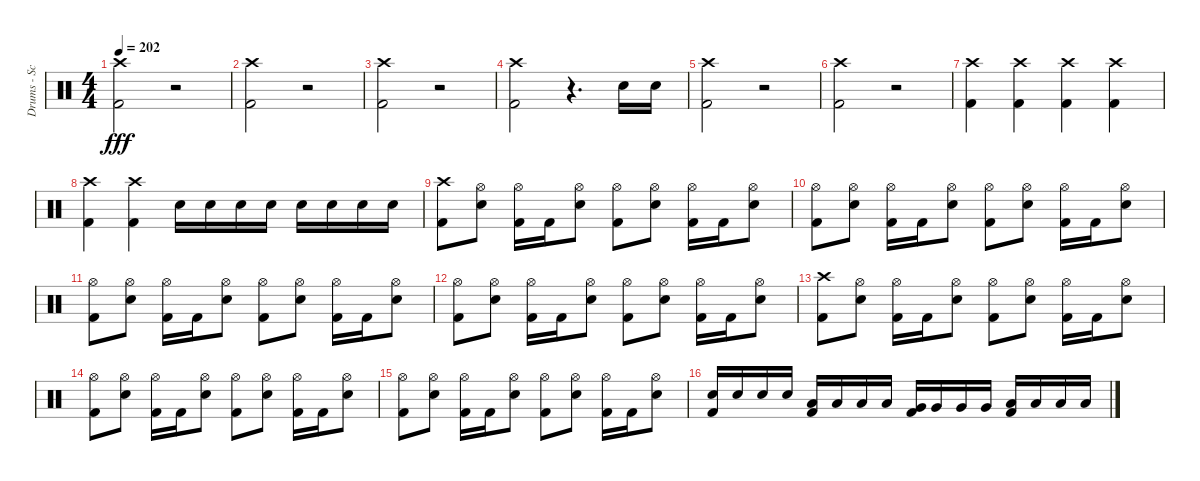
\track ("Drums - Scott" "Drums - Sc") {instrument percussion}
\staff {score}
\articulation defaults
\ts (4 4)
\tempo 202
\clef neutral
\ks c
("Crash high (hit)" "Kick (hit) 2").2{dy fff} r.2 |
("Crash high (hit)" "Kick (hit) 2").2 r.2 |
("Crash high (hit)" "Kick (hit) 2").2 r.2 |
("Crash high (hit)" "Kick (hit) 2").2 r.4{d} "Electric Snare (hit)".16 "Electric Snare (hit)".16 |
("Crash high (hit)" "Kick (hit) 2").2 r.2 |
("Crash high (hit)" "Kick (hit) 2").2 r.2 |
("Crash high (hit)" "Kick (hit) 2").4 ("Crash high (hit)" "Kick (hit) 2").4 ("Crash high (hit)" "Kick (hit) 2").4 ("Kick (hit) 2" "Crash high (hit)").4 |
("Crash high (hit)" "Kick (hit) 2").4 ("Crash high (hit)" "Kick (hit) 2").4 "Electric Snare (hit)".16 "Electric Snare (hit)".16 "Electric Snare (hit)".16 "Electric Snare (hit)".16 "Electric Snare (hit)".16 "Electric Snare (hit)".16 "Electric Snare (hit)".16 "Electric Snare (hit)".16 |
("Crash high (hit)" "Kick (hit) 2").8 ("Hi-Hat (open)" "Electric Snare (hit)").8 ("Hi-Hat (open)" "Kick (hit) 2").16 "Kick (hit) 2".16 ("Hi-Hat (open)" "Electric Snare (hit)").8 ("Hi-Hat (open)" "Kick (hit) 2").8 ("Hi-Hat (open)" "Electric Snare (hit)").8 ("Hi-Hat (open)" "Kick (hit) 2").16 "Kick (hit) 2".16 ("Hi-Hat (open)" "Electric Snare (hit)").8 |
("Hi-Hat (open)" "Kick (hit) 2").8 ("Hi-Hat (open)" "Electric Snare (hit)").8 ("Hi-Hat (open)" "Kick (hit) 2").16 "Kick (hit) 2".16 ("Hi-Hat (open)" "Electric Snare (hit)").8 ("Hi-Hat (open)" "Kick (hit) 2").8 ("Hi-Hat (open)" "Electric Snare (hit)").8 ("Hi-Hat (open)" "Kick (hit) 2").16 "Kick (hit) 2".16 ("Hi-Hat (open)" "Electric Snare (hit)").8 |
("Hi-Hat (open)" "Kick (hit) 2").8 ("Hi-Hat (open)" "Electric Snare (hit)").8 ("Hi-Hat (open)" "Kick (hit) 2").16 "Kick (hit) 2".16 ("Hi-Hat (open)" "Electric Snare (hit)").8 ("Hi-Hat (open)" "Kick (hit) 2").8 ("Hi-Hat (open)" "Electric Snare (hit)").8 ("Hi-Hat (open)" "Kick (hit) 2").16 "Kick (hit) 2".16 ("Hi-Hat (open)" "Electric Snare (hit)").8 |
("Hi-Hat (open)" "Kick (hit) 2").8 ("Hi-Hat (open)" "Electric Snare (hit)").8 ("Hi-Hat (open)" "Kick (hit) 2").16 "Kick (hit) 2".16 ("Hi-Hat (open)" "Electric Snare (hit)").8 ("Hi-Hat (open)" "Kick (hit) 2").8 ("Hi-Hat (open)" "Electric Snare (hit)").8 ("Hi-Hat (open)" "Kick (hit) 2").16 "Kick (hit) 2".16 ("Hi-Hat (open)" "Electric Snare (hit)").8 |
("Crash high (hit)" "Kick (hit) 2").8 ("Hi-Hat (open)" "Electric Snare (hit)").8 ("Hi-Hat (open)" "Kick (hit) 2").16 "Kick (hit) 2".16 ("Hi-Hat (open)" "Electric Snare (hit)").8 ("Hi-Hat (open)" "Kick (hit) 2").8 ("Hi-Hat (open)" "Electric Snare (hit)").8 ("Hi-Hat (open)" "Kick (hit) 2").16 "Kick (hit) 2".16 ("Hi-Hat (open)" "Electric Snare (hit)").8 |
("Hi-Hat (open)" "Kick (hit) 2").8 ("Hi-Hat (open)" "Electric Snare (hit)").8 ("Hi-Hat (open)" "Kick (hit) 2").16 "Kick (hit) 2".16 ("Hi-Hat (open)" "Electric Snare (hit)").8 ("Hi-Hat (open)" "Kick (hit) 2").8 ("Hi-Hat (open)" "Electric Snare (hit)").8 ("Hi-Hat (open)" "Kick (hit) 2").16 "Kick (hit) 2".16 ("Hi-Hat (open)" "Electric Snare (hit)").8 |
("Hi-Hat (open)" "Kick (hit) 2").8 ("Hi-Hat (open)" "Electric Snare (hit)").8 ("Hi-Hat (open)" "Kick (hit) 2").16 "Kick (hit) 2".16 ("Hi-Hat (open)" "Electric Snare (hit)").8 ("Hi-Hat (open)" "Kick (hit) 2").8 ("Hi-Hat (open)" "Electric Snare (hit)").8 ("Hi-Hat (open)" "Kick (hit) 2").16 "Kick (hit) 2".16 ("Hi-Hat (open)" "Electric Snare (hit)").8 |
("Kick (hit) 2" "Electric Snare (hit)").16 "Electric Snare (hit)".16 "Electric Snare (hit)".16 "Electric Snare (hit)".16 ("Kick (hit) 2" "Low Tom (hit)").16 "Low Tom (hit)".16 "Low Tom (hit)".16 "Low Tom (hit)".16 ("Kick (hit) 2" "Very Low Tom (hit)").16 "Very Low Tom (hit)".16 "Very Low Tom (hit)".16 "Very Low Tom (hit)".16 ("Kick (hit) 2" "Low Floor Tom (hit)").16 "Low Floor Tom (hit)".16 "Low Floor Tom (hit)".16 "Low Floor Tom (hit)".16
